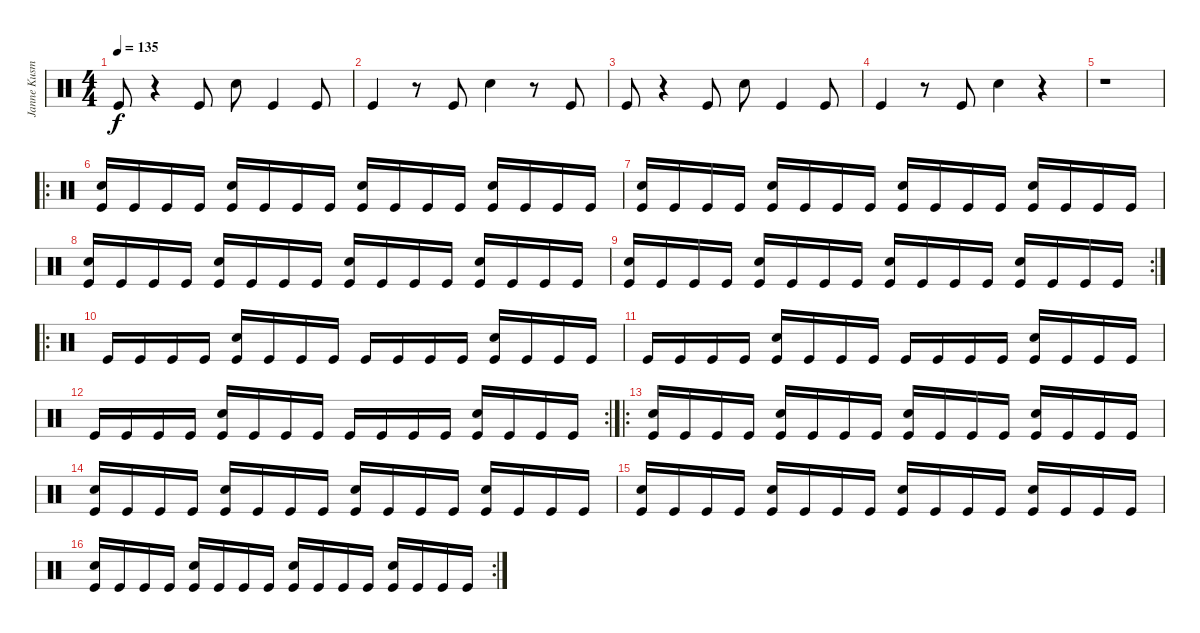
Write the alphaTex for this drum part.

\track ("Janne Kusmin" "Janne Kusm") {instrument percussion}
\staff {score}
\articulation defaults
\ts (4 4)
\tempo 135
\clef neutral
\ks c "Kick (hit)".8{dy f}
r.4 "Kick (hit)".8 "Electric Snare (hit)".8 "Kick (hit)".4 "Kick (hit)".8 |
"Kick (hit)".4 r.8 "Kick (hit)".8 "Electric Snare (hit)".4 r.8 "Kick (hit)".8 |
"Kick (hit)".8 r.4 "Kick (hit)".8 "Electric Snare (hit)".8 "Kick (hit)".4 "Kick (hit)".8 |
"Kick (hit)".4 r.8 "Kick (hit)".8 "Electric Snare (hit)".4 r.4 |
r.1 |
\ro
("Snare (hit) 2" "Kick (hit)").16 "Kick (hit)".16 "Kick (hit)".16 "Kick (hit)".16 ("Snare (hit) 2" "Kick (hit)").16 "Kick (hit)".16 "Kick (hit)".16 "Kick (hit)".16 ("Snare (hit) 2" "Kick (hit)").16 "Kick (hit)".16 "Kick (hit)".16 "Kick (hit)".16 ("Snare (hit) 2" "Kick (hit)").16 "Kick (hit)".16 "Kick (hit)".16 "Kick (hit)".16 |
("Snare (hit) 2" "Kick (hit)").16 "Kick (hit)".16 "Kick (hit)".16 "Kick (hit)".16 ("Snare (hit) 2" "Kick (hit)").16 "Kick (hit)".16 "Kick (hit)".16 "Kick (hit)".16 ("Snare (hit) 2" "Kick (hit)").16 "Kick (hit)".16 "Kick (hit)".16 "Kick (hit)".16 ("Snare (hit) 2" "Kick (hit)").16 "Kick (hit)".16 "Kick (hit)".16 "Kick (hit)".16 |
("Snare (hit) 2" "Kick (hit)").16 "Kick (hit)".16 "Kick (hit)".16 "Kick (hit)".16 ("Snare (hit) 2" "Kick (hit)").16 "Kick (hit)".16 "Kick (hit)".16 "Kick (hit)".16 ("Snare (hit) 2" "Kick (hit)").16 "Kick (hit)".16 "Kick (hit)".16 "Kick (hit)".16 ("Snare (hit) 2" "Kick (hit)").16 "Kick (hit)".16 "Kick (hit)".16 "Kick (hit)".16 |
\rc 2
("Snare (hit) 2" "Kick (hit)").16 "Kick (hit)".16 "Kick (hit)".16 "Kick (hit)".16 ("Snare (hit) 2" "Kick (hit)").16 "Kick (hit)".16 "Kick (hit)".16 "Kick (hit)".16 ("Snare (hit) 2" "Kick (hit)").16 "Kick (hit)".16 "Kick (hit)".16 "Kick (hit)".16 ("Snare (hit) 2" "Kick (hit)").16 "Kick (hit)".16 "Kick (hit)".16 "Kick (hit)".16 |
\ro "Kick (hit)".16 "Kick (hit)".16 "Kick (hit)".16 "Kick (hit)".16
("Snare (hit) 2" "Kick (hit)").16 "Kick (hit)".16 "Kick (hit)".16 "Kick (hit)".16 "Kick (hit)".16 "Kick (hit)".16 "Kick (hit)".16 "Kick (hit)".16 ("Snare (hit) 2" "Kick (hit)").16 "Kick (hit)".16 "Kick (hit)".16 "Kick (hit)".16 |
"Kick (hit)".16 "Kick (hit)".16 "Kick (hit)".16 "Kick (hit)".16 ("Snare (hit) 2" "Kick (hit)").16 "Kick (hit)".16 "Kick (hit)".16 "Kick (hit)".16 "Kick (hit)".16 "Kick (hit)".16 "Kick (hit)".16 "Kick (hit)".16 ("Snare (hit) 2" "Kick (hit)").16 "Kick (hit)".16 "Kick (hit)".16 "Kick (hit)".16 |
\rc 2 "Kick (hit)".16 "Kick (hit)".16 "Kick (hit)".16 "Kick (hit)".16
("Snare (hit) 2" "Kick (hit)").16 "Kick (hit)".16 "Kick (hit)".16 "Kick (hit)".16 "Kick (hit)".16 "Kick (hit)".16 "Kick (hit)".16 "Kick (hit)".16 ("Snare (hit) 2" "Kick (hit)").16 "Kick (hit)".16 "Kick (hit)".16 "Kick (hit)".16 |
\ro
("Snare (hit) 2" "Kick (hit)").16 "Kick (hit)".16 "Kick (hit)".16 "Kick (hit)".16 ("Snare (hit) 2" "Kick (hit)").16 "Kick (hit)".16 "Kick (hit)".16 "Kick (hit)".16 ("Snare (hit) 2" "Kick (hit)").16 "Kick (hit)".16 "Kick (hit)".16 "Kick (hit)".16 ("Snare (hit) 2" "Kick (hit)").16 "Kick (hit)".16 "Kick (hit)".16 "Kick (hit)".16 |
("Snare (hit) 2" "Kick (hit)").16 "Kick (hit)".16 "Kick (hit)".16 "Kick (hit)".16 ("Snare (hit) 2" "Kick (hit)").16 "Kick (hit)".16 "Kick (hit)".16 "Kick (hit)".16 ("Snare (hit) 2" "Kick (hit)").16 "Kick (hit)".16 "Kick (hit)".16 "Kick (hit)".16 ("Snare (hit) 2" "Kick (hit)").16 "Kick (hit)".16 "Kick (hit)".16 "Kick (hit)".16 |
("Snare (hit) 2" "Kick (hit)").16 "Kick (hit)".16 "Kick (hit)".16 "Kick (hit)".16 ("Snare (hit) 2" "Kick (hit)").16 "Kick (hit)".16 "Kick (hit)".16 "Kick (hit)".16 ("Snare (hit) 2" "Kick (hit)").16 "Kick (hit)".16 "Kick (hit)".16 "Kick (hit)".16 ("Snare (hit) 2" "Kick (hit)").16 "Kick (hit)".16 "Kick (hit)".16 "Kick (hit)".16 |
\rc 2
("Snare (hit) 2" "Kick (hit)").16 "Kick (hit)".16 "Kick (hit)".16 "Kick (hit)".16 ("Snare (hit) 2" "Kick (hit)").16 "Kick (hit)".16 "Kick (hit)".16 "Kick (hit)".16 ("Snare (hit) 2" "Kick (hit)").16 "Kick (hit)".16 "Kick (hit)".16 "Kick (hit)".16 ("Snare (hit) 2" "Kick (hit)").16 "Kick (hit)".16 "Kick (hit)".16 "Kick (hit)".16
